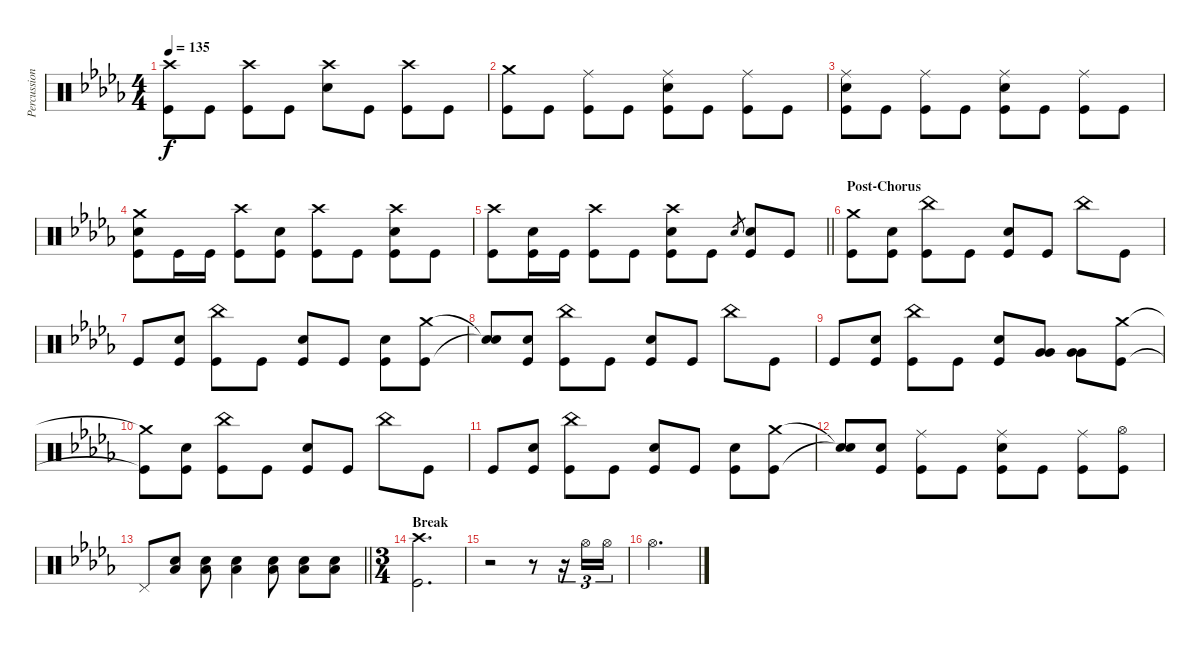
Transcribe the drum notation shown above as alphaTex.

\track ("Percussion" "Percussion") {instrument percussion}
\staff {score}
\articulation defaults
\ts (4 4)
\tempo 135
\clef neutral
\ks db
("Crash high (hit)" "Kick (hit)").8{dy f} "Kick (hit)".8 ("Crash high (hit)" "Kick (hit)").8 "Kick (hit)".8 ("Crash high (hit)" "Electric Snare (hit)").8 "Kick (hit)".8 ("Crash high (hit)" "Kick (hit)").8 "Kick (hit)".8 |
("Crash medium (hit)" "Kick (hit)").8 "Kick (hit)".8 ("Ride (middle)" "Kick (hit)").8 "Kick (hit)".8 ("Ride (middle)" "Electric Snare (hit)" "Kick (hit)").8 "Kick (hit)".8 ("Ride (middle)" "Kick (hit)").8 "Kick (hit)".8 |
("Ride (middle)" "Electric Snare (hit)" "Kick (hit)").8 "Kick (hit)".8 ("Ride (middle)" "Kick (hit)").8 "Kick (hit)".8 ("Ride (middle)" "Electric Snare (hit)" "Kick (hit)").8 "Kick (hit)".8 ("Ride (middle)" "Kick (hit)").8 "Kick (hit)".8 |
("Crash medium (hit)" "Electric Snare (hit)" "Kick (hit)").8 "Kick (hit)".16 "Kick (hit)".16 ("Crash high (hit)" "Kick (hit)").8 ("Electric Snare (hit)" "Kick (hit)").8 ("Crash high (hit)" "Kick (hit)").8 "Kick (hit)".8 ("Crash high (hit)" "Electric Snare (hit)" "Kick (hit)").8 "Kick (hit)".8 |
\barLineRight lightlight
("Crash high (hit)" "Kick (hit)").8 ("Electric Snare (hit)" "Kick (hit)").16 "Kick (hit)".16 ("Crash high (hit)" "Kick (hit)").8 "Kick (hit)".8 ("Crash high (hit)" "Electric Snare (hit)" "Kick (hit)").8 "Kick (hit)".8 "Electric Snare (hit)".8{gr} ("Electric Snare (hit)" "Kick (hit)").8 "Kick (hit)".8 |
\section ("" "Post-Chorus")
("Crash medium (hit)" "Kick (hit)").8 ("Electric Snare (hit)" "Kick (hit)").8 ("China (hit)" "Kick (hit)").8 "Kick (hit)".8 ("Electric Snare (hit)" "Kick (hit)").8 "Kick (hit)".8 "China (hit)".8 "Kick (hit)".8 |
"Kick (hit)".8 ("Electric Snare (hit)" "Kick (hit)").8 ("China (hit)" "Kick (hit)").8 "Kick (hit)".8 ("Electric Snare (hit)" "Kick (hit)").8 "Kick (hit)".8 ("Electric Snare (hit)" "Kick (hit)").8 ("Crash medium (hit)" "Kick (hit)").8 |
("Snare (hit)"{t} "Snare (hit)"{t}).8 ("Electric Snare (hit)" "Kick (hit)").8 ("China (hit)" "Kick (hit)").8 "Kick (hit)".8 ("Electric Snare (hit)" "Kick (hit)").8 "Kick (hit)".8 "China (hit)".8 "Kick (hit)".8 |
"Kick (hit)".8 ("Electric Snare (hit)" "Kick (hit)").8 ("China (hit)" "Kick (hit)").8 "Kick (hit)".8 ("Electric Snare (hit)" "Kick (hit)").8 ("Very Low Tom (hit)" "Very Low Tom (hit)").8 ("Very Low Tom (hit)" "Very Low Tom (hit)").8 ("Crash medium (hit)" "Kick (hit)").8 |
("Crash medium (hit)"{t} "Kick (hit)"{t}).8 ("Electric Snare (hit)" "Kick (hit)").8 ("China (hit)" "Kick (hit)").8 "Kick (hit)".8 ("Electric Snare (hit)" "Kick (hit)").8 "Kick (hit)".8 "China (hit)".8 "Kick (hit)".8 |
"Kick (hit)".8 ("Electric Snare (hit)" "Kick (hit)").8 ("China (hit)" "Kick (hit)").8 "Kick (hit)".8 ("Electric Snare (hit)" "Kick (hit)").8 "Kick (hit)".8 ("Electric Snare (hit)" "Kick (hit)").8 ("Crash medium (hit)" "Kick (hit)").8 |
("Snare (hit)"{t} "Snare (hit)"{t}).8 ("Electric Snare (hit)" "Kick (hit)").8 ("Ride (middle)" "Kick (hit)").8 "Kick (hit)".8 ("Ride (middle)" "Electric Snare (hit)" "Kick (hit)").8 "Kick (hit)".8 ("Ride (middle)" "Kick (hit)").8 ("Hi-Hat (open)" "Kick (hit)").8 |
\barLineRight lightlight "Pedal Hi-Hat (hit)".8
("Low Floor Tom (hit)" "Electric Snare (hit)").8 ("Low Floor Tom (hit)" "Electric Snare (hit)").8 ("Low Floor Tom (hit)" "Electric Snare (hit)").4 ("Low Floor Tom (hit)" "Electric Snare (hit)").8 ("Low Floor Tom (hit)" "Electric Snare (hit)").8 ("Low Floor Tom (hit)" "Electric Snare (hit)").8 |
\ts (3 4)
\section ("" "Break")
("Crash high (hit)" "Kick (hit)").2{d} |
r.2 r.8 r.16{tu (3 2)} "Hi-Hat (open)".16{tu (3 2)} "Hi-Hat (open)".16{tu (3 2)} |
"Hi-Hat (open)".2{d}
